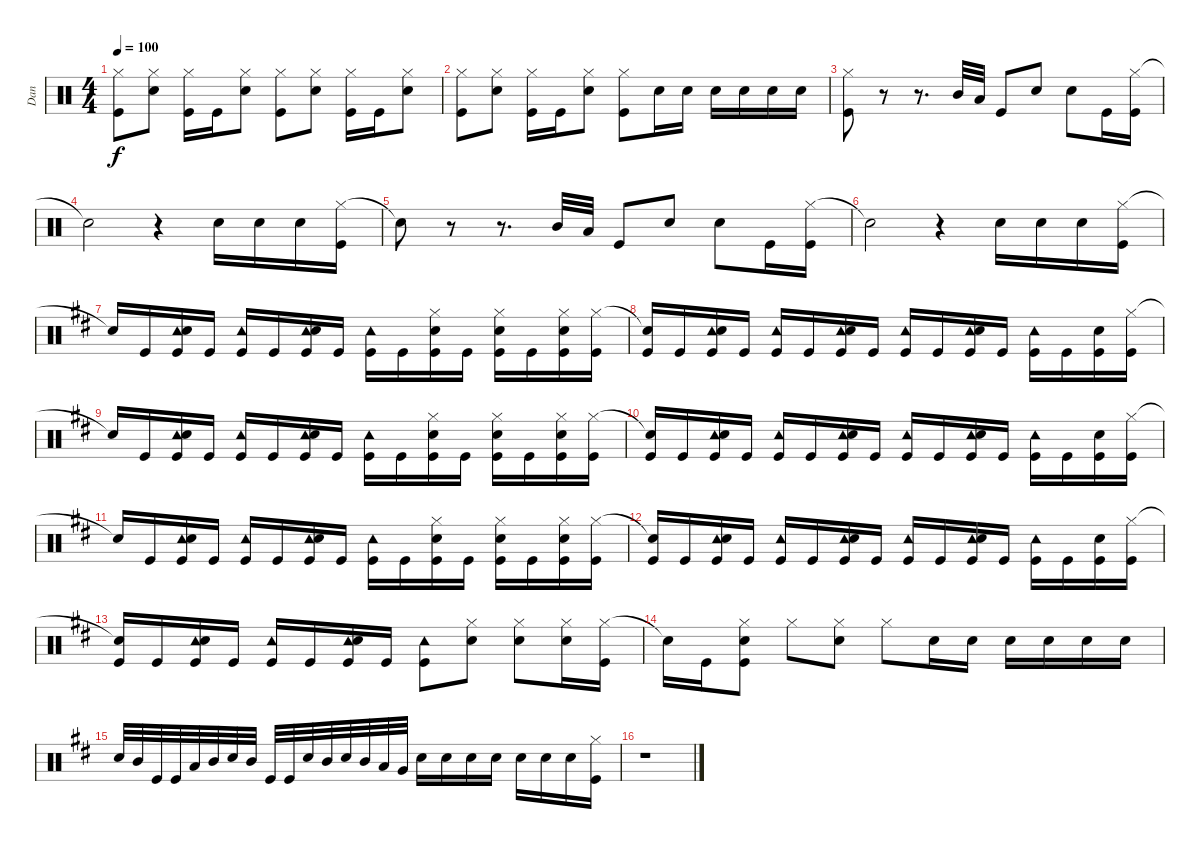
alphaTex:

\track ("Dan" "Dan") {instrument percussion}
\staff {score}
\articulation defaults
\ts (4 4)
\tempo 100
\clef neutral
\ks c
("Hi-Hat (closed)" "Kick (hit)").8{dy f} ("Hi-Hat (closed)" "Snare (hit) 2").8 ("Hi-Hat (closed)" "Kick (hit)").16 "Kick (hit)".16 ("Hi-Hat (closed)" "Snare (hit) 2").8 ("Hi-Hat (closed)" "Kick (hit)").8 ("Hi-Hat (closed)" "Snare (hit) 2").8 ("Hi-Hat (closed)" "Kick (hit)").16 "Kick (hit)".16 ("Hi-Hat (closed)" "Snare (hit) 2").8 |
("Hi-Hat (closed)" "Kick (hit)").8 ("Hi-Hat (closed)" "Snare (hit) 2").8 ("Hi-Hat (closed)" "Kick (hit)").16 "Kick (hit)".16 ("Hi-Hat (closed)" "Snare (hit) 2").8 ("Hi-Hat (closed)" "Kick (hit)").8 "Snare (hit) 2".16 "Snare (hit) 2".16 "Snare (hit) 2".16 "Snare (hit) 2".16 "Snare (hit) 2".16 "Snare (hit) 2".16 |
("Hi-Hat (closed)" "Kick (hit)").8 r.8 r.8{d} "Mid Tom (hit)".32 "Low Tom (hit)".32 "Kick (hit)".8 "Snare (hit) 2".8 "Snare (hit) 2".8 "Kick (hit)".16 ("Hi-Hat (closed)" "Kick (hit)").16 |
"Snare (hit)"{t}.2 r.4 "Snare (hit) 2".16 "Snare (hit) 2".16 "Snare (hit) 2".16 ("Hi-Hat (closed)" "Kick (hit)").16 |
"Snare (hit)"{t}.8 r.8 r.8{d} "Mid Tom (hit)".32 "Low Tom (hit)".32 "Kick (hit)".8 "Snare (hit) 2".8 "Snare (hit) 2".8 "Kick (hit)".16 ("Hi-Hat (closed)" "Kick (hit)").16 |
"Snare (hit)"{t}.2 r.4 "Snare (hit) 2".16 "Snare (hit) 2".16 "Snare (hit) 2".16 ("Hi-Hat (closed)" "Kick (hit)").16 |
\ks d "Snare (hit)"{t}.16 "Kick (hit)".16
("Tambourine (hit)" "Snare (hit) 2" "Kick (hit)").16 "Kick (hit)".16 ("Tambourine (hit)" "Kick (hit)").16 "Kick (hit)".16 ("Tambourine (hit)" "Snare (hit) 2" "Kick (hit)").16 "Kick (hit)".16 ("Tambourine (hit)" "Kick (hit)").16 "Kick (hit)".16 ("Hi-Hat (closed)" "Snare (hit) 2" "Kick (hit)").16 "Kick (hit)".16 ("Hi-Hat (closed)" "Snare (hit) 2" "Kick (hit)").16 "Kick (hit)".16 ("Hi-Hat (closed)" "Snare (hit) 2" "Kick (hit)").16 ("Hi-Hat (closed)" "Kick (hit)").16 |
("Snare (hit)"{t} "Kick (hit)").16 "Kick (hit)".16 ("Tambourine (hit)" "Snare (hit) 2" "Kick (hit)").16 "Kick (hit)".16 ("Tambourine (hit)" "Kick (hit)").16 "Kick (hit)".16 ("Tambourine (hit)" "Snare (hit) 2" "Kick (hit)").16 "Kick (hit)".16 ("Tambourine (hit)" "Kick (hit)").16 "Kick (hit)".16 ("Tambourine (hit)" "Snare (hit) 2" "Kick (hit)").16 "Kick (hit)".16 ("Tambourine (hit)" "Kick (hit)").16 "Kick (hit)".16 ("Snare (hit) 2" "Kick (hit)").16 ("Hi-Hat (closed)" "Kick (hit)").16 |
"Snare (hit)"{t}.16 "Kick (hit)".16 ("Tambourine (hit)" "Snare (hit) 2" "Kick (hit)").16 "Kick (hit)".16 ("Tambourine (hit)" "Kick (hit)").16 "Kick (hit)".16 ("Tambourine (hit)" "Snare (hit) 2" "Kick (hit)").16 "Kick (hit)".16 ("Tambourine (hit)" "Kick (hit)").16 "Kick (hit)".16 ("Hi-Hat (closed)" "Snare (hit) 2" "Kick (hit)").16 "Kick (hit)".16 ("Hi-Hat (closed)" "Snare (hit) 2" "Kick (hit)").16 "Kick (hit)".16 ("Hi-Hat (closed)" "Snare (hit) 2" "Kick (hit)").16 ("Hi-Hat (closed)" "Kick (hit)").16 |
("Snare (hit)"{t} "Kick (hit)").16 "Kick (hit)".16 ("Tambourine (hit)" "Snare (hit) 2" "Kick (hit)").16 "Kick (hit)".16 ("Tambourine (hit)" "Kick (hit)").16 "Kick (hit)".16 ("Tambourine (hit)" "Snare (hit) 2" "Kick (hit)").16 "Kick (hit)".16 ("Tambourine (hit)" "Kick (hit)").16 "Kick (hit)".16 ("Tambourine (hit)" "Snare (hit) 2" "Kick (hit)").16 "Kick (hit)".16 ("Tambourine (hit)" "Kick (hit)").16 "Kick (hit)".16 ("Snare (hit) 2" "Kick (hit)").16 ("Hi-Hat (closed)" "Kick (hit)").16 |
"Snare (hit)"{t}.16 "Kick (hit)".16 ("Tambourine (hit)" "Snare (hit) 2" "Kick (hit)").16 "Kick (hit)".16 ("Tambourine (hit)" "Kick (hit)").16 "Kick (hit)".16 ("Tambourine (hit)" "Snare (hit) 2" "Kick (hit)").16 "Kick (hit)".16 ("Tambourine (hit)" "Kick (hit)").16 "Kick (hit)".16 ("Hi-Hat (closed)" "Snare (hit) 2" "Kick (hit)").16 "Kick (hit)".16 ("Hi-Hat (closed)" "Snare (hit) 2" "Kick (hit)").16 "Kick (hit)".16 ("Hi-Hat (closed)" "Snare (hit) 2" "Kick (hit)").16 ("Hi-Hat (closed)" "Kick (hit)").16 |
("Snare (hit)"{t} "Kick (hit)").16 "Kick (hit)".16 ("Tambourine (hit)" "Snare (hit) 2" "Kick (hit)").16 "Kick (hit)".16 ("Tambourine (hit)" "Kick (hit)").16 "Kick (hit)".16 ("Tambourine (hit)" "Snare (hit) 2" "Kick (hit)").16 "Kick (hit)".16 ("Tambourine (hit)" "Kick (hit)").16 "Kick (hit)".16 ("Tambourine (hit)" "Snare (hit) 2" "Kick (hit)").16 "Kick (hit)".16 ("Tambourine (hit)" "Kick (hit)").16 "Kick (hit)".16 ("Snare (hit) 2" "Kick (hit)").16 ("Hi-Hat (closed)" "Kick (hit)").16 |
("Snare (hit)"{t} "Kick (hit)").16 "Kick (hit)".16 ("Tambourine (hit)" "Snare (hit) 2" "Kick (hit)").16 "Kick (hit)".16 ("Tambourine (hit)" "Kick (hit)").16 "Kick (hit)".16 ("Tambourine (hit)" "Snare (hit) 2" "Kick (hit)").16 "Kick (hit)".16 ("Tambourine (hit)" "Kick (hit)").8 ("Hi-Hat (closed)" "Snare (hit) 2").8 ("Hi-Hat (closed)" "Snare (hit) 2").8 ("Hi-Hat (closed)" "Snare (hit) 2").16 ("Hi-Hat (closed)" "Kick (hit)").16 |
"Snare (hit)"{t}.16 "Kick (hit)".16 ("Hi-Hat (closed)" "Snare (hit) 2" "Kick (hit)").8 "Hi-Hat (closed)".8 ("Hi-Hat (closed)" "Snare (hit) 2").8 "Hi-Hat (closed)".8 "Snare (hit) 2".16 "Snare (hit) 2".16 "Snare (hit) 2".16 "Snare (hit) 2".16 "Snare (hit) 2".16 "Snare (hit) 2".16 |
"Snare (hit) 2".32 "Mid Tom (hit)".32 "Kick (hit)".32 "Kick (hit)".32 "Low Tom (hit)".32 "Mid Tom (hit)".32 "Snare (hit) 2".32 "Mid Tom (hit)".32 "Kick (hit)".32 "Kick (hit)".32 "Snare (hit) 2".32 "Mid Tom (hit)".32 "Snare (hit) 2".32 "Mid Tom (hit)".32 "Low Tom (hit)".32 "Very Low Tom (hit)".32 "Snare (hit) 2".16 "Snare (hit) 2".16 "Snare (hit) 2".16 "Snare (hit) 2".16 "Snare (hit) 2".16 "Snare (hit) 2".16 "Snare (hit) 2".16 ("Hi-Hat (closed)" "Kick (hit)").16 |
r.1
